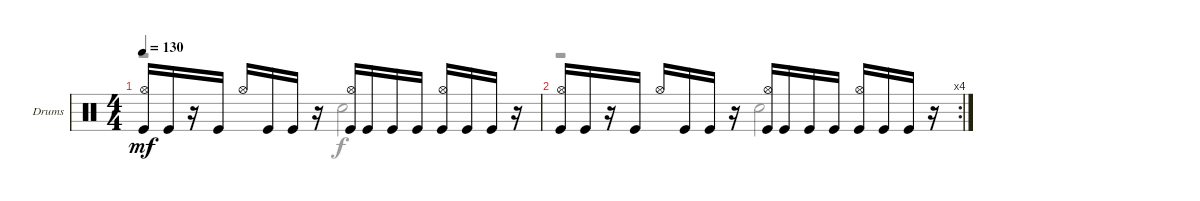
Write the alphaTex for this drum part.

\bracketExtendMode groupsimilarinstruments
\firstSystemTrackNameOrientation horizontal
\otherSystemsTrackNameOrientation horizontal
\track ("Drumkit" "Drums") {instrument percussion}
\staff {score}
\articulation defaults
\voice
\ts (4 4)
\tempo 130
\clef neutral
\ks c
("Kick (hit)" "Hi-Hat (open)").16{dy mf} "Kick (hit)".16 r.16 "Kick (hit)".16 "Hi-Hat (open)".16 "Kick (hit)".16 "Kick (hit)".16 r.16 ("Hi-Hat (open)" "Kick (hit)").16 "Kick (hit)".16 "Kick (hit)".16 "Kick (hit)".16 ("Hi-Hat (open)" "Kick (hit)").16 "Kick (hit)".16 "Kick (hit)".16 r.16 |
\rc 4
("Kick (hit)" "Hi-Hat (open)").16 "Kick (hit)".16 r.16 "Kick (hit)".16 "Hi-Hat (open)".16 "Kick (hit)".16 "Kick (hit)".16 r.16 ("Hi-Hat (open)" "Kick (hit)").16 "Kick (hit)".16 "Kick (hit)".16 "Kick (hit)".16 ("Hi-Hat (open)" "Kick (hit)").16 "Kick (hit)".16 "Kick (hit)".16 r.16
\voice
\clef neutral
\ottava regular
\simile none
\ks c
r.2{dy f} "Snare (hit) 2".2 |
r.2 "Snare (hit) 2".2
